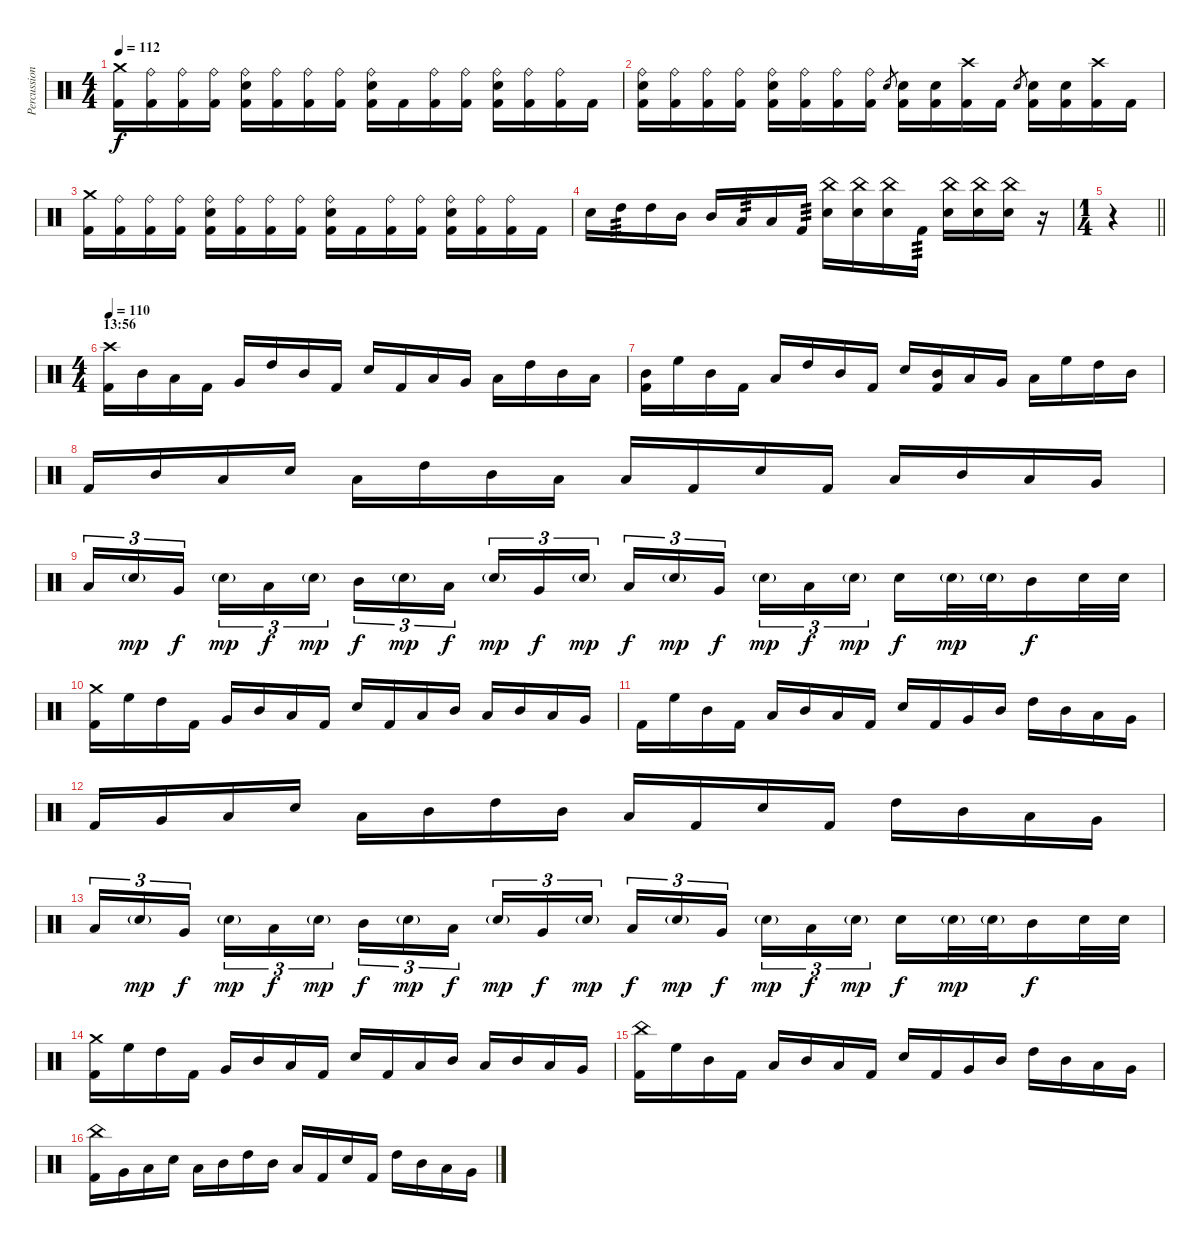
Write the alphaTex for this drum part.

\track ("Percussion" "Percussion") {instrument percussion}
\staff {score}
\articulation defaults
\ts (4 4)
\tempo 112
\clef neutral
\ks c
("Kick (hit) 2" "Crash medium (hit)").16{dy f} ("Kick (hit) 2" "Ride (bell)").16 ("Kick (hit) 2" "Ride (bell)").16 ("Kick (hit) 2" "Ride (bell)").16 ("Kick (hit) 2" "Ride (bell)" "Electric Snare (hit)").16 ("Ride (bell)" "Kick (hit) 2").16 ("Kick (hit) 2" "Ride (bell)").16 ("Kick (hit) 2" "Ride (bell)").16 ("Kick (hit) 2" "Ride (bell)" "Electric Snare (hit)").16 "Kick (hit) 2".16 ("Kick (hit) 2" "Ride (bell)").16 ("Kick (hit) 2" "Ride (bell)").16 ("Kick (hit) 2" "Ride (bell)" "Electric Snare (hit)").16 ("Ride (bell)" "Kick (hit) 2").16 ("Kick (hit) 2" "Ride (bell)").16 "Kick (hit) 2".16 |
("Kick (hit) 2" "Ride (bell)" "Electric Snare (hit)").16 ("Kick (hit) 2" "Ride (bell)").16 ("Kick (hit) 2" "Ride (bell)").16 ("Kick (hit) 2" "Ride (bell)").16 ("Kick (hit) 2" "Ride (bell)" "Electric Snare (hit)").16 ("Ride (bell)" "Kick (hit) 2").16 ("Kick (hit) 2" "Ride (bell)").16 ("Kick (hit) 2" "Ride (bell)").16 "Electric Snare (hit)".8{gr} ("Kick (hit) 2" "Electric Snare (hit)").16 ("Kick (hit) 2" "Electric Snare (hit)").16 ("Kick (hit) 2" "Crash high (hit)").16 "Kick (hit) 2".16 "Electric Snare (hit)".8{gr} ("Kick (hit) 2" "Electric Snare (hit)").16 ("Electric Snare (hit)" "Kick (hit) 2").16 ("Kick (hit) 2" "Crash high (hit)").16 "Kick (hit) 2".16 |
("Kick (hit) 2" "Crash medium (hit)").16 ("Kick (hit) 2" "Ride (bell)").16 ("Kick (hit) 2" "Ride (bell)").16 ("Kick (hit) 2" "Ride (bell)").16 ("Kick (hit) 2" "Ride (bell)" "Electric Snare (hit)").16 ("Ride (bell)" "Kick (hit) 2").16 ("Kick (hit) 2" "Ride (bell)").16 ("Kick (hit) 2" "Ride (bell)").16 ("Kick (hit) 2" "Ride (bell)" "Electric Snare (hit)").16 "Kick (hit) 2".16 ("Kick (hit) 2" "Ride (bell)").16 ("Kick (hit) 2" "Ride (bell)").16 ("Kick (hit) 2" "Ride (bell)" "Electric Snare (hit)").16 ("Ride (bell)" "Kick (hit) 2").16 ("Kick (hit) 2" "Ride (bell)").16 "Kick (hit) 2".16 |
"Electric Snare (hit)".16 "High Tom (hit)".16{tp 3} "High Tom (hit)".16 "Mid Tom (hit)".16 "Mid Tom (hit)".16 "Low Tom (hit)".16{tp 3} "Low Tom (hit)".16 "Kick (hit) 2".16{tp 3} ("Electric Snare (hit)" "China (hit)").16 ("Electric Snare (hit)" "China (hit)").16 ("Electric Snare (hit)" "China (hit)").16 "Kick (hit) 2".16{tp 3} ("Electric Snare (hit)" "China (hit)").16 ("Electric Snare (hit)" "China (hit)").16 ("Electric Snare (hit)" "China (hit)").16 r.16 |
\ts (1 4)
\barLineRight lightlight
r.4 |
\ts (4 4)
\section ("" "13:56")
\tempo 110
("Crash high (hit)" "Kick (hit) 2").16{volume 10} "Mid Tom (hit)".16 "Low Floor Tom (hit)".16 "Kick (hit) 2".16 "Very Low Tom (hit)".16 "High Tom (hit)".16 "Mid Tom (hit)".16 "Kick (hit) 2".16 "Electric Snare (hit)".16 "Kick (hit) 2".16 "Low Floor Tom (hit)".16 "Very Low Tom (hit)".16 "Low Floor Tom (hit)".16 "High Tom (hit)".16 "Mid Tom (hit)".16 "Low Tom (hit)".16 |
("Kick (hit) 2" "Mid Tom (hit)").16 "High Floor Tom (hit)".16 "Mid Tom (hit)".16 "Kick (hit) 2".16 "Low Floor Tom (hit)".16 "High Tom (hit)".16 "Mid Tom (hit)".16 "Kick (hit) 2".16 "Electric Snare (hit)".16 ("Kick (hit) 2" "Mid Tom (hit)").16 "Low Tom (hit)".16 "Very Low Tom (hit)".16 "Low Floor Tom (hit)".16 "High Floor Tom (hit)".16 "High Tom (hit)".16 "Mid Tom (hit)".16 |
"Kick (hit) 2".16 "Mid Tom (hit)".16 "Low Tom (hit)".16 "Electric Snare (hit)".16 "Low Tom (hit)".16 "High Tom (hit)".16 "Mid Tom (hit)".16 "Low Tom (hit)".16 "Low Floor Tom (hit)".16 "Kick (hit) 2".16 "Electric Snare (hit)".16 "Kick (hit) 2".16 "Low Tom (hit)".16 "Mid Tom (hit)".16 "Low Tom (hit)".16 "Very Low Tom (hit)".16 |
"Low Floor Tom (hit)".16{tu (3 2)} "Electric Snare (hit)"{g}.16{tu (3 2) dy mp} "Very Low Tom (hit)".16{tu (3 2) dy f} "Electric Snare (hit)"{g}.16{tu (3 2) dy mp} "Low Tom (hit)".16{tu (3 2) dy f} "Electric Snare (hit)"{g}.16{tu (3 2) dy mp} "Mid Tom (hit)".16{tu (3 2) dy f} "Electric Snare (hit)"{g}.16{tu (3 2) dy mp} "Low Tom (hit)".16{tu (3 2) dy f} "Electric Snare (hit)"{g}.16{tu (3 2) dy mp} "Very Low Tom (hit)".16{tu (3 2) dy f} "Electric Snare (hit)"{g}.16{tu (3 2) dy mp} "Low Floor Tom (hit)".16{tu (3 2) dy f} "Electric Snare (hit)"{g}.16{tu (3 2) dy mp} "Very Low Tom (hit)".16{tu (3 2) dy f} "Electric Snare (hit)"{g}.16{tu (3 2) dy mp} "Low Tom (hit)".16{tu (3 2) dy f} "Electric Snare (hit)"{g}.16{tu (3 2) dy mp} "Electric Snare (hit)".16{dy f} "Electric Snare (hit)"{g}.32{dy mp} "Electric Snare (hit)"{g}.32 "Mid Tom (hit)".16{dy f} "Electric Snare (hit)".32 "Electric Snare (hit)".32 |
("Crash medium (hit)" "Kick (hit) 2").16 "High Floor Tom (hit)".16 "High Tom (hit)".16 "Kick (hit) 2".16 "Very Low Tom (hit)".16 "Mid Tom (hit)".16 "Low Tom (hit)".16 "Kick (hit) 2".16 "Electric Snare (hit)".16 "Kick (hit) 2".16 "Low Tom (hit)".16 "Mid Tom (hit)".16 "Low Floor Tom (hit)".16 "Mid Tom (hit)".16 "Low Tom (hit)".16 "Very Low Tom (hit)".16 |
"Kick (hit) 2".16 "High Floor Tom (hit)".16 "Mid Tom (hit)".16 "Kick (hit) 2".16 "Low Tom (hit)".16 "Mid Tom (hit)".16 "Low Tom (hit)".16 "Kick (hit) 2".16 "Electric Snare (hit)".16 "Kick (hit) 2".16 "Very Low Tom (hit)".16 "Mid Tom (hit)".16 "High Tom (hit)".16 "Mid Tom (hit)".16 "Low Tom (hit)".16 "Very Low Tom (hit)".16 |
"Kick (hit) 2".16 "Very Low Tom (hit)".16 "Low Tom (hit)".16 "Electric Snare (hit)".16 "Low Tom (hit)".16 "Mid Tom (hit)".16 "High Tom (hit)".16 "Mid Tom (hit)".16 "Low Tom (hit)".16 "Kick (hit) 2".16 "Electric Snare (hit)".16 "Kick (hit) 2".16 "High Tom (hit)".16 "Mid Tom (hit)".16 "Low Tom (hit)".16 "Very Low Tom (hit)".16 |
"Low Floor Tom (hit)".16{tu (3 2)} "Electric Snare (hit)"{g}.16{tu (3 2) dy mp} "Very Low Tom (hit)".16{tu (3 2) dy f} "Electric Snare (hit)"{g}.16{tu (3 2) dy mp} "Low Tom (hit)".16{tu (3 2) dy f} "Electric Snare (hit)"{g}.16{tu (3 2) dy mp} "Mid Tom (hit)".16{tu (3 2) dy f} "Electric Snare (hit)"{g}.16{tu (3 2) dy mp} "Low Tom (hit)".16{tu (3 2) dy f} "Electric Snare (hit)"{g}.16{tu (3 2) dy mp} "Very Low Tom (hit)".16{tu (3 2) dy f} "Electric Snare (hit)"{g}.16{tu (3 2) dy mp} "Low Floor Tom (hit)".16{tu (3 2) dy f} "Electric Snare (hit)"{g}.16{tu (3 2) dy mp} "Very Low Tom (hit)".16{tu (3 2) dy f} "Electric Snare (hit)"{g}.16{tu (3 2) dy mp} "Low Tom (hit)".16{tu (3 2) dy f} "Electric Snare (hit)"{g}.16{tu (3 2) dy mp} "Electric Snare (hit)".16{dy f} "Electric Snare (hit)"{g}.32{dy mp} "Electric Snare (hit)"{g}.32 "Mid Tom (hit)".16{dy f} "Electric Snare (hit)".32 "Electric Snare (hit)".32 |
("Crash medium (hit)" "Kick (hit) 2").16 "High Floor Tom (hit)".16 "High Tom (hit)".16 "Kick (hit) 2".16 "Very Low Tom (hit)".16 "Mid Tom (hit)".16 "Low Tom (hit)".16 "Kick (hit) 2".16 "Electric Snare (hit)".16 "Kick (hit) 2".16 "Low Tom (hit)".16 "Mid Tom (hit)".16 "Low Floor Tom (hit)".16 "Mid Tom (hit)".16 "Low Tom (hit)".16 "Very Low Tom (hit)".16 |
("Kick (hit) 2" "China (hit)").16 "High Floor Tom (hit)".16 "Mid Tom (hit)".16 "Kick (hit) 2".16 "Low Tom (hit)".16 "Mid Tom (hit)".16 "Low Tom (hit)".16 "Kick (hit) 2".16 "Electric Snare (hit)".16 "Kick (hit) 2".16 "Very Low Tom (hit)".16 "Mid Tom (hit)".16 "High Tom (hit)".16 "Mid Tom (hit)".16 "Low Tom (hit)".16 "Very Low Tom (hit)".16 |
("Kick (hit) 2" "China (hit)").16 "Very Low Tom (hit)".16 "Low Tom (hit)".16 "Electric Snare (hit)".16 "Low Tom (hit)".16 "Mid Tom (hit)".16 "High Tom (hit)".16 "Mid Tom (hit)".16 "Low Tom (hit)".16 "Kick (hit) 2".16 "Electric Snare (hit)".16 "Kick (hit) 2".16 "High Tom (hit)".16 "Mid Tom (hit)".16 "Low Tom (hit)".16 "Very Low Tom (hit)".16
